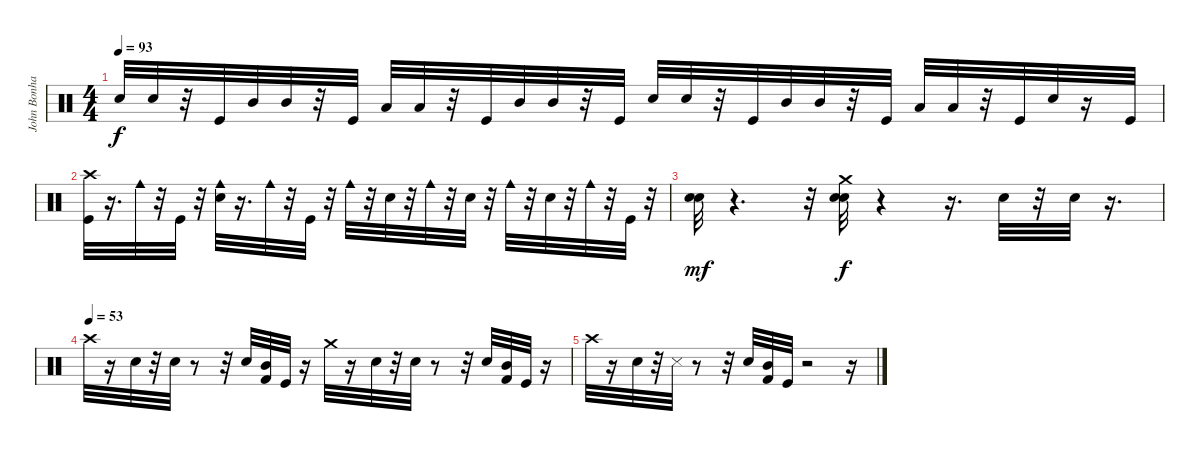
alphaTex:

\track ("John Bonham" "John Bonha") {instrument percussion}
\staff {score}
\articulation defaults
\ts (4 4)
\tempo 93
\clef neutral
\ks c "Electric Snare (hit)".32{dy f} "Electric Snare (hit)".32
r.32 "Kick (hit)".32 "Mid Tom (hit)".32 "Mid Tom (hit)".32 r.32 "Kick (hit)".32 "Low Tom (hit)".32 "Low Tom (hit)".32 r.32 "Kick (hit)".32 "Mid Tom (hit)".32 "Mid Tom (hit)".32 r.32 "Kick (hit)".32 "Electric Snare (hit)".32 "Electric Snare (hit)".32 r.32 "Kick (hit)".32 "Mid Tom (hit)".32 "Mid Tom (hit)".32 r.32 "Kick (hit)".32 "Low Tom (hit)".32 "Low Tom (hit)".32 r.32 "Kick (hit)".32 "Electric Snare (hit)".32 r.16 "Kick (hit)".32 |
("Crash high (hit)" "Kick (hit)").32 r.16{d} "Cowbell medium (hit)".32 r.32 "Kick (hit)".32 r.32 ("Electric Snare (hit)" "Cowbell medium (hit)").32 r.16{d} "Cowbell medium (hit)".32 r.32 "Kick (hit)".32 r.32 "Cowbell medium (hit)".32 r.32 "Electric Snare (hit)".32 r.32 "Cowbell medium (hit)".32 r.32 "Electric Snare (hit)".32 r.32 "Cowbell medium (hit)".32 r.32 "Electric Snare (hit)".32 r.32 "Cowbell medium (hit)".32 r.32 "Kick (hit)".32 r.32 |
("Snare (hit) 2" "Electric Snare (hit)").32{dy mf} r.4{d} r.32 ("Crash medium (hit)" "Snare (hit) 2" "Electric Snare (hit)").32{dy f} r.4 r.16{d} "Electric Snare (hit)".32 r.32 "Electric Snare (hit)".32 r.16{d} |
\tempo (53)
"Crash high (hit)".32 r.16 "Snare (hit) 2".32 r.32 "Snare (hit) 2".32 r.8 r.32 "Snare (hit) 2".32 ("Mid Tom (hit)" "Kick (hit) 2").32 "Kick (hit)".32 r.16 "Crash medium (hit)".32 r.16 "Snare (hit) 2".32 r.32 "Snare (hit) 2".32 r.8 r.32 "Snare (hit) 2".32 ("Mid Tom (hit)" "Kick (hit) 2").32 "Kick (hit)".32 r.16 |
"Crash high (hit)".32 r.16 "Snare (hit) 2".32 r.32 "Snare (side stick) 3".32 r.8 r.32 "Snare (hit) 2".32 ("Mid Tom (hit)" "Kick (hit) 2").32 "Kick (hit)".32 r.2 r.16
